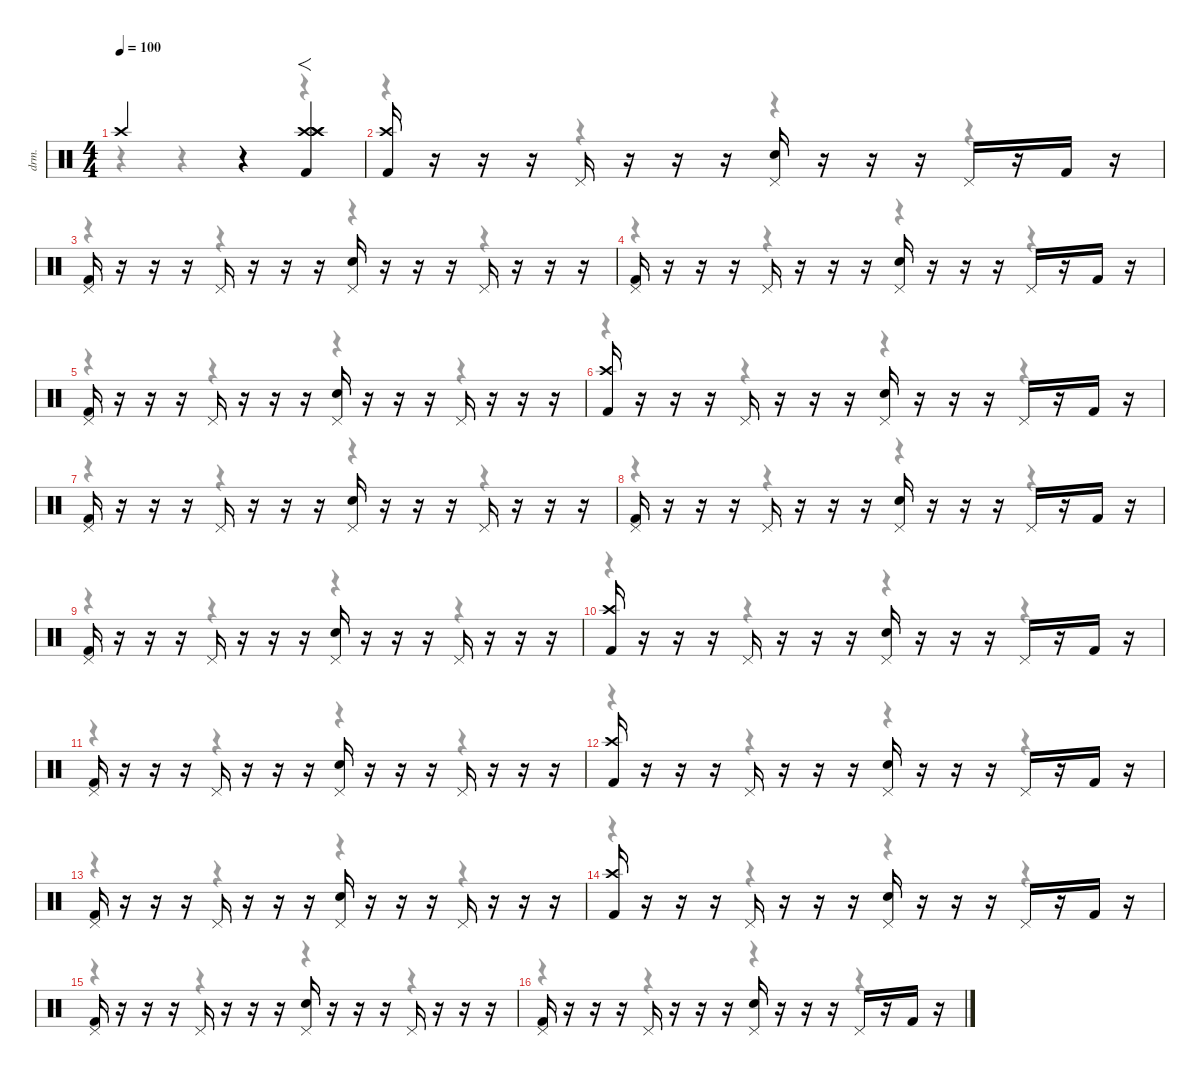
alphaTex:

\defaultSystemsLayout 4
\hideDynamics
\bracketExtendMode nobrackets
\otherSystemsTrackNameOrientation horizontal
\track ("Drums" "drm.") {instrument percussion}
\staff {score}
\articulation defaults
\voice
\ts (4 4)
\tempo 100
\clef neutral
\ks c "Crash high (hit)".2{dy f}
r.4 ("Kick (hit) 2" "Crash high (hit)" "Crash high (hit)" "Crash high (hit)").4{f} |
("Kick (hit) 2" "Crash high (hit)").16{dy ff} r.16 r.16 r.16 "Pedal Hi-Hat (hit)".16 r.16 r.16 r.16 ("Snare (hit) 2" "Pedal Hi-Hat (hit)").16 r.16 r.16 r.16 "Pedal Hi-Hat (hit)".16 r.16 "Kick (hit) 2".16 r.16 |
("Kick (hit) 2" "Pedal Hi-Hat (hit)").16 r.16 r.16 r.16 "Pedal Hi-Hat (hit)".16 r.16 r.16 r.16 ("Snare (hit) 2" "Pedal Hi-Hat (hit)").16 r.16 r.16 r.16 "Pedal Hi-Hat (hit)".16 r.16 r.16 r.16 |
("Kick (hit) 2" "Pedal Hi-Hat (hit)").16 r.16 r.16 r.16 "Pedal Hi-Hat (hit)".16 r.16 r.16 r.16 ("Snare (hit) 2" "Pedal Hi-Hat (hit)").16 r.16 r.16 r.16 "Pedal Hi-Hat (hit)".16 r.16 "Kick (hit) 2".16 r.16 |
("Kick (hit) 2" "Pedal Hi-Hat (hit)").16 r.16 r.16 r.16 "Pedal Hi-Hat (hit)".16 r.16 r.16 r.16 ("Snare (hit) 2" "Pedal Hi-Hat (hit)").16 r.16 r.16 r.16 "Pedal Hi-Hat (hit)".16 r.16 r.16 r.16 |
("Kick (hit) 2" "Crash high (hit)").16 r.16 r.16 r.16 "Pedal Hi-Hat (hit)".16 r.16 r.16 r.16 ("Snare (hit) 2" "Pedal Hi-Hat (hit)").16 r.16 r.16 r.16 "Pedal Hi-Hat (hit)".16 r.16 "Kick (hit) 2".16 r.16 |
("Kick (hit) 2" "Pedal Hi-Hat (hit)").16 r.16 r.16 r.16 "Pedal Hi-Hat (hit)".16 r.16 r.16 r.16 ("Snare (hit) 2" "Pedal Hi-Hat (hit)").16 r.16 r.16 r.16 "Pedal Hi-Hat (hit)".16 r.16 r.16 r.16 |
("Kick (hit) 2" "Pedal Hi-Hat (hit)").16 r.16 r.16 r.16 "Pedal Hi-Hat (hit)".16 r.16 r.16 r.16 ("Snare (hit) 2" "Pedal Hi-Hat (hit)").16 r.16 r.16 r.16 "Pedal Hi-Hat (hit)".16 r.16 "Kick (hit) 2".16 r.16 |
("Kick (hit) 2" "Pedal Hi-Hat (hit)").16 r.16 r.16 r.16 "Pedal Hi-Hat (hit)".16 r.16 r.16 r.16 ("Snare (hit) 2" "Pedal Hi-Hat (hit)").16 r.16 r.16 r.16 "Pedal Hi-Hat (hit)".16 r.16 r.16 r.16 |
("Kick (hit) 2" "Crash high (hit)").16 r.16 r.16 r.16 "Pedal Hi-Hat (hit)".16 r.16 r.16 r.16 ("Snare (hit) 2" "Pedal Hi-Hat (hit)").16 r.16 r.16 r.16 "Pedal Hi-Hat (hit)".16 r.16 "Kick (hit) 2".16 r.16 |
("Kick (hit) 2" "Pedal Hi-Hat (hit)").16 r.16 r.16 r.16 "Pedal Hi-Hat (hit)".16 r.16 r.16 r.16 ("Snare (hit) 2" "Pedal Hi-Hat (hit)").16 r.16 r.16 r.16 "Pedal Hi-Hat (hit)".16 r.16 r.16 r.16 |
("Kick (hit) 2" "Crash high (hit)").16 r.16 r.16 r.16 "Pedal Hi-Hat (hit)".16 r.16 r.16 r.16 ("Snare (hit) 2" "Pedal Hi-Hat (hit)").16 r.16 r.16 r.16 "Pedal Hi-Hat (hit)".16 r.16 "Kick (hit) 2".16 r.16 |
("Kick (hit) 2" "Pedal Hi-Hat (hit)").16 r.16 r.16 r.16 "Pedal Hi-Hat (hit)".16 r.16 r.16 r.16 ("Snare (hit) 2" "Pedal Hi-Hat (hit)").16 r.16 r.16 r.16 "Pedal Hi-Hat (hit)".16 r.16 r.16 r.16 |
("Kick (hit) 2" "Crash high (hit)").16 r.16 r.16 r.16 "Pedal Hi-Hat (hit)".16 r.16 r.16 r.16 ("Snare (hit) 2" "Pedal Hi-Hat (hit)").16 r.16 r.16 r.16 "Pedal Hi-Hat (hit)".16 r.16 "Kick (hit) 2".16 r.16 |
("Kick (hit) 2" "Pedal Hi-Hat (hit)").16 r.16 r.16 r.16 "Pedal Hi-Hat (hit)".16 r.16 r.16 r.16 ("Snare (hit) 2" "Pedal Hi-Hat (hit)").16 r.16 r.16 r.16 "Pedal Hi-Hat (hit)".16 r.16 r.16 r.16 |
("Kick (hit) 2" "Pedal Hi-Hat (hit)").16 r.16 r.16 r.16 "Pedal Hi-Hat (hit)".16 r.16 r.16 r.16 ("Snare (hit) 2" "Pedal Hi-Hat (hit)").16 r.16 r.16 r.16 "Pedal Hi-Hat (hit)".16 r.16 "Kick (hit) 2".16 r.16
\voice
\clef neutral
\ottava regular
\simile none
\ks c
r.4{dy mf} r.4 r.4 r.4 |
r.4 r.4 r.4 r.4 |
r.4 r.4 r.4 r.4 |
r.4 r.4 r.4 r.4 |
r.4 r.4 r.4 r.4 |
r.4 r.4 r.4 r.4 |
r.4 r.4 r.4 r.4 |
r.4 r.4 r.4 r.4 |
r.4 r.4 r.4 r.4 |
r.4 r.4 r.4 r.4 |
r.4 r.4 r.4 r.4 |
r.4 r.4 r.4 r.4 |
r.4 r.4 r.4 r.4 |
r.4 r.4 r.4 r.4 |
r.4 r.4 r.4 r.4 |
r.4 r.4 r.4 r.4
